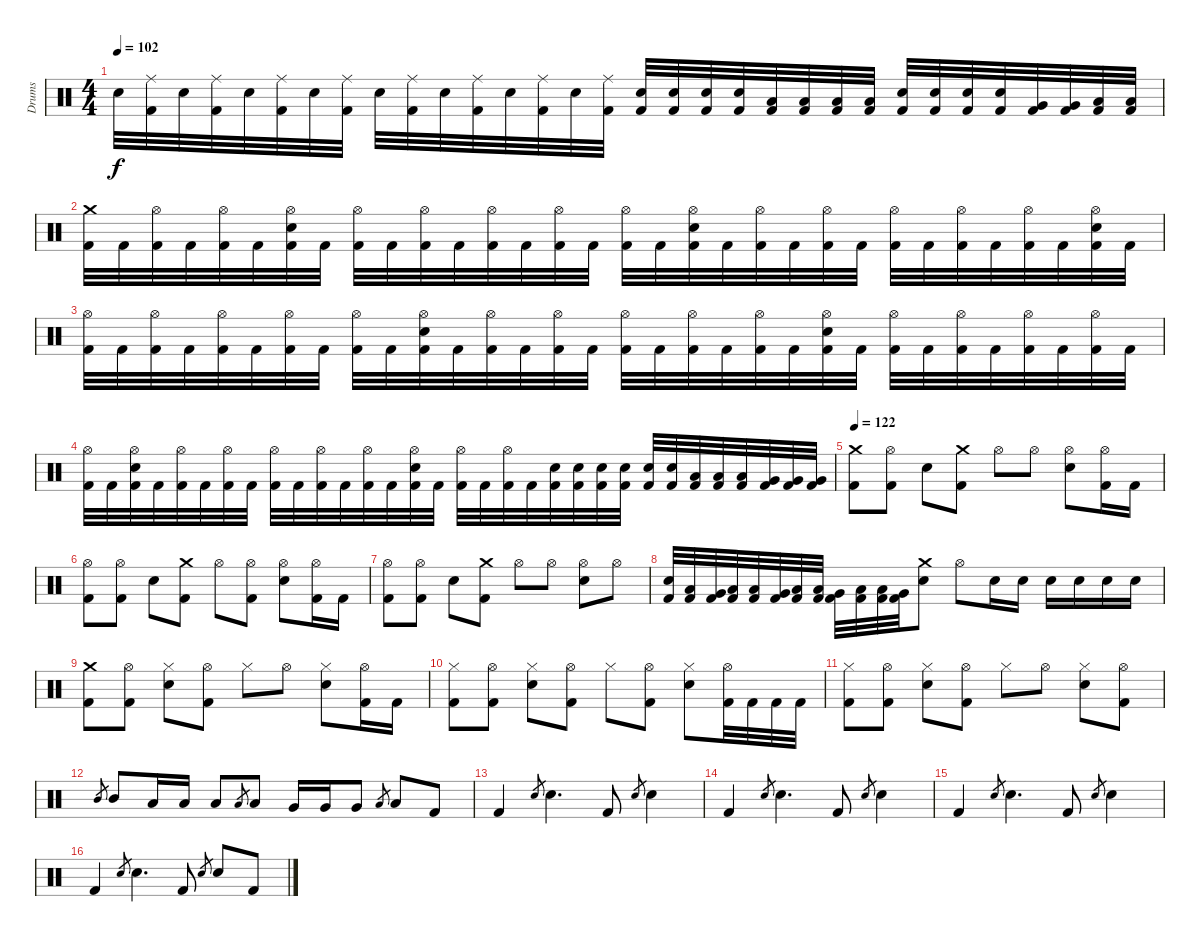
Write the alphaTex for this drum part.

\track ("Drums" "Drums") {instrument percussion}
\staff {score}
\articulation defaults
\ts (4 4)
\tempo 102
\clef neutral
\ks c "Electric Snare (hit)".32{dy f}
("Ride (middle)" "Kick (hit) 2").32 "Electric Snare (hit)".32 ("Ride (middle)" "Kick (hit) 2").32 "Electric Snare (hit)".32 ("Ride (middle)" "Kick (hit) 2").32 "Electric Snare (hit)".32 ("Ride (middle)" "Kick (hit) 2").32 "Electric Snare (hit)".32 ("Ride (middle)" "Kick (hit) 2").32 "Electric Snare (hit)".32 ("Ride (middle)" "Kick (hit) 2").32 "Electric Snare (hit)".32 ("Ride (middle)" "Kick (hit) 2").32 "Electric Snare (hit)".32 ("Ride (middle)" "Kick (hit) 2").32 ("Electric Snare (hit)" "Kick (hit) 2").32 ("Electric Snare (hit)" "Kick (hit) 2").32 ("Electric Snare (hit)" "Kick (hit) 2").32 ("Electric Snare (hit)" "Kick (hit) 2").32 ("Low Tom (hit)" "Kick (hit) 2").32 ("Low Tom (hit)" "Kick (hit) 2").32 ("Low Tom (hit)" "Kick (hit) 2").32 ("Low Tom (hit)" "Kick (hit) 2").32 ("Electric Snare (hit)" "Kick (hit) 2").32 ("Electric Snare (hit)" "Kick (hit) 2").32 ("Electric Snare (hit)" "Kick (hit) 2").32 ("Electric Snare (hit)" "Kick (hit) 2").32 ("Very Low Tom (hit)" "Kick (hit) 2").32 ("Very Low Tom (hit)" "Kick (hit) 2").32 ("Low Floor Tom (hit)" "Kick (hit) 2").32 ("Low Floor Tom (hit)" "Kick (hit) 2").32 |
("Crash medium (hit)" "Kick (hit) 2").32 "Kick (hit) 2".32 ("Hi-Hat (open)" "Kick (hit) 2").32 "Kick (hit) 2".32 ("Hi-Hat (open)" "Kick (hit) 2").32 "Kick (hit) 2".32 ("Hi-Hat (open)" "Electric Snare (hit)" "Kick (hit) 2").32 "Kick (hit) 2".32 ("Hi-Hat (open)" "Kick (hit) 2").32 "Kick (hit) 2".32 ("Hi-Hat (open)" "Kick (hit) 2").32 "Kick (hit) 2".32 ("Hi-Hat (open)" "Kick (hit) 2").32 "Kick (hit) 2".32 ("Hi-Hat (open)" "Kick (hit) 2").32 "Kick (hit) 2".32 ("Hi-Hat (open)" "Kick (hit) 2").32 "Kick (hit) 2".32 ("Hi-Hat (open)" "Electric Snare (hit)" "Kick (hit) 2").32 "Kick (hit) 2".32 ("Hi-Hat (open)" "Kick (hit) 2").32 "Kick (hit) 2".32 ("Hi-Hat (open)" "Kick (hit) 2").32 "Kick (hit) 2".32 ("Hi-Hat (open)" "Kick (hit) 2").32 "Kick (hit) 2".32 ("Hi-Hat (open)" "Kick (hit) 2").32 "Kick (hit) 2".32 ("Hi-Hat (open)" "Kick (hit) 2").32 "Kick (hit) 2".32 ("Hi-Hat (open)" "Electric Snare (hit)" "Kick (hit) 2").32 "Kick (hit) 2".32 |
("Hi-Hat (open)" "Kick (hit) 2").32 "Kick (hit) 2".32 ("Hi-Hat (open)" "Kick (hit) 2").32 "Kick (hit) 2".32 ("Hi-Hat (open)" "Kick (hit) 2").32 "Kick (hit) 2".32 ("Hi-Hat (open)" "Kick (hit) 2").32 "Kick (hit) 2".32 ("Hi-Hat (open)" "Kick (hit) 2").32 "Kick (hit) 2".32 ("Hi-Hat (open)" "Electric Snare (hit)" "Kick (hit) 2").32 "Kick (hit) 2".32 ("Hi-Hat (open)" "Kick (hit) 2").32 "Kick (hit) 2".32 ("Hi-Hat (open)" "Kick (hit) 2").32 "Kick (hit) 2".32 ("Hi-Hat (open)" "Kick (hit) 2").32 "Kick (hit) 2".32 ("Hi-Hat (open)" "Kick (hit) 2").32 "Kick (hit) 2".32 ("Hi-Hat (open)" "Kick (hit) 2").32 "Kick (hit) 2".32 ("Hi-Hat (open)" "Electric Snare (hit)" "Kick (hit) 2").32 "Kick (hit) 2".32 ("Hi-Hat (open)" "Kick (hit) 2").32 "Kick (hit) 2".32 ("Hi-Hat (open)" "Kick (hit) 2").32 "Kick (hit) 2".32 ("Hi-Hat (open)" "Kick (hit) 2").32 "Kick (hit) 2".32 ("Hi-Hat (open)" "Kick (hit) 2").32 "Kick (hit) 2".32 |
("Hi-Hat (open)" "Kick (hit) 2").32 "Kick (hit) 2".32 ("Hi-Hat (open)" "Electric Snare (hit)" "Kick (hit) 2").32 "Kick (hit) 2".32 ("Hi-Hat (open)" "Kick (hit) 2").32 "Kick (hit) 2".32 ("Hi-Hat (open)" "Kick (hit) 2").32 "Kick (hit) 2".32 ("Hi-Hat (open)" "Kick (hit) 2").32 "Kick (hit) 2".32 ("Hi-Hat (open)" "Kick (hit) 2").32 "Kick (hit) 2".32 ("Hi-Hat (open)" "Kick (hit) 2").32 "Kick (hit) 2".32 ("Hi-Hat (open)" "Electric Snare (hit)" "Kick (hit) 2").32 "Kick (hit) 2".32 ("Hi-Hat (open)" "Kick (hit) 2").32 "Kick (hit) 2".32 ("Hi-Hat (open)" "Kick (hit) 2").32 "Kick (hit) 2".32 ("Electric Snare (hit)" "Kick (hit) 2").32 ("Electric Snare (hit)" "Kick (hit) 2").32 ("Electric Snare (hit)" "Kick (hit) 2").32 ("Electric Snare (hit)" "Kick (hit) 2").32 ("Electric Snare (hit)" "Kick (hit) 2").32 ("Electric Snare (hit)" "Kick (hit) 2").32 ("Low Tom (hit)" "Kick (hit) 2").32 ("Low Tom (hit)" "Kick (hit) 2").32 ("Low Tom (hit)" "Kick (hit) 2").32 ("Very Low Tom (hit)" "Kick (hit) 2").32 ("Very Low Tom (hit)" "Kick (hit) 2").32 ("Very Low Tom (hit)" "Kick (hit) 2").32 |
\tempo 122
("Crash medium (hit)" "Kick (hit) 2").8 ("Hi-Hat (open)" "Kick (hit) 2").8 "Electric Snare (hit)".8 ("Crash medium (hit)" "Kick (hit) 2").8 "Hi-Hat (open)".8 "Hi-Hat (open)".8 ("Hi-Hat (open)" "Electric Snare (hit)").8 ("Hi-Hat (open)" "Kick (hit) 2").16 "Kick (hit) 2".16 |
("Hi-Hat (open)" "Kick (hit) 2").8 ("Hi-Hat (open)" "Kick (hit) 2").8 "Electric Snare (hit)".8 ("Crash medium (hit)" "Kick (hit) 2").8 "Hi-Hat (open)".8 ("Hi-Hat (open)" "Kick (hit) 2").8 ("Hi-Hat (open)" "Electric Snare (hit)").8 ("Hi-Hat (open)" "Kick (hit) 2").16 "Kick (hit) 2".16 |
("Hi-Hat (open)" "Kick (hit) 2").8 ("Hi-Hat (open)" "Kick (hit) 2").8 "Electric Snare (hit)".8 ("Crash medium (hit)" "Kick (hit) 2").8 "Hi-Hat (open)".8 "Hi-Hat (open)".8 ("Hi-Hat (open)" "Electric Snare (hit)").8 "Hi-Hat (open)".8 |
("Electric Snare (hit)" "Kick (hit) 2").32 ("Low Tom (hit)" "Kick (hit) 2").32 ("Very Low Tom (hit)" "Kick (hit) 2").32 ("Low Floor Tom (hit)" "Kick (hit) 2").32 ("Low Tom (hit)" "Kick (hit) 2").32 ("Very Low Tom (hit)" "Kick (hit) 2").32 ("Low Floor Tom (hit)" "Kick (hit) 2").32 ("Low Tom (hit)" "Kick (hit) 2").32 ("Very Low Tom (hit)" "Kick (hit) 2").32 ("Low Floor Tom (hit)" "Kick (hit) 2").32 ("Low Tom (hit)" "Kick (hit) 2").32 ("Very Low Tom (hit)" "Kick (hit) 2").32 ("Crash medium (hit)" "Electric Snare (hit)").8 "Hi-Hat (open)".8 "Electric Snare (hit)".16 "Electric Snare (hit)".16 "Electric Snare (hit)".16 "Electric Snare (hit)".16 "Electric Snare (hit)".16 "Electric Snare (hit)".16 |
("Crash medium (hit)" "Kick (hit) 2").8 ("Hi-Hat (open)" "Kick (hit) 2").8 ("Hi-Hat (closed)" "Electric Snare (hit)").8 ("Hi-Hat (open)" "Kick (hit) 2").8 "Hi-Hat (closed)".8 "Hi-Hat (open)".8 ("Hi-Hat (closed)" "Electric Snare (hit)").8 ("Hi-Hat (open)" "Kick (hit) 2").16 "Kick (hit) 2".16 |
("Hi-Hat (closed)" "Kick (hit) 2").8 ("Hi-Hat (open)" "Kick (hit) 2").8 ("Hi-Hat (closed)" "Electric Snare (hit)").8 ("Hi-Hat (open)" "Kick (hit) 2").8 "Hi-Hat (closed)".8 ("Hi-Hat (open)" "Kick (hit) 2").8 ("Hi-Hat (closed)" "Electric Snare (hit)").8 ("Hi-Hat (open)" "Kick (hit) 2").32 "Kick (hit) 2".32 "Kick (hit) 2".32 "Kick (hit) 2".32 |
("Hi-Hat (closed)" "Kick (hit) 2").8 ("Hi-Hat (open)" "Kick (hit) 2").8 ("Hi-Hat (closed)" "Electric Snare (hit)").8 ("Hi-Hat (open)" "Kick (hit) 2").8 "Hi-Hat (closed)".8 "Hi-Hat (open)".8 ("Hi-Hat (closed)" "Electric Snare (hit)").8 ("Hi-Hat (open)" "Kick (hit) 2").8 |
"Mid Tom (hit)".8{gr} "Mid Tom (hit)".8 "Low Tom (hit)".16 "Low Tom (hit)".16 "Low Tom (hit)".8 "Low Tom (hit)".8{gr} "Low Tom (hit)".8 "Very Low Tom (hit)".16 "Very Low Tom (hit)".16 "Very Low Tom (hit)".8 "Low Tom (hit)".8{gr} "Low Tom (hit)".8 "Kick (hit) 2".8 |
"Kick (hit) 2".4 "Electric Snare (hit)".8{gr} "Electric Snare (hit)".4{d} "Kick (hit) 2".8 "Electric Snare (hit)".8{gr} "Electric Snare (hit)".4 |
"Kick (hit) 2".4 "Electric Snare (hit)".8{gr} "Electric Snare (hit)".4{d} "Kick (hit) 2".8 "Electric Snare (hit)".8{gr} "Electric Snare (hit)".4 |
"Kick (hit) 2".4 "Electric Snare (hit)".8{gr} "Electric Snare (hit)".4{d} "Kick (hit) 2".8 "Electric Snare (hit)".8{gr} "Electric Snare (hit)".4 |
"Kick (hit) 2".4 "Electric Snare (hit)".8{gr} "Electric Snare (hit)".4{d} "Kick (hit) 2".8 "Electric Snare (hit)".8{gr} "Electric Snare (hit)".8 "Kick (hit) 2".8
